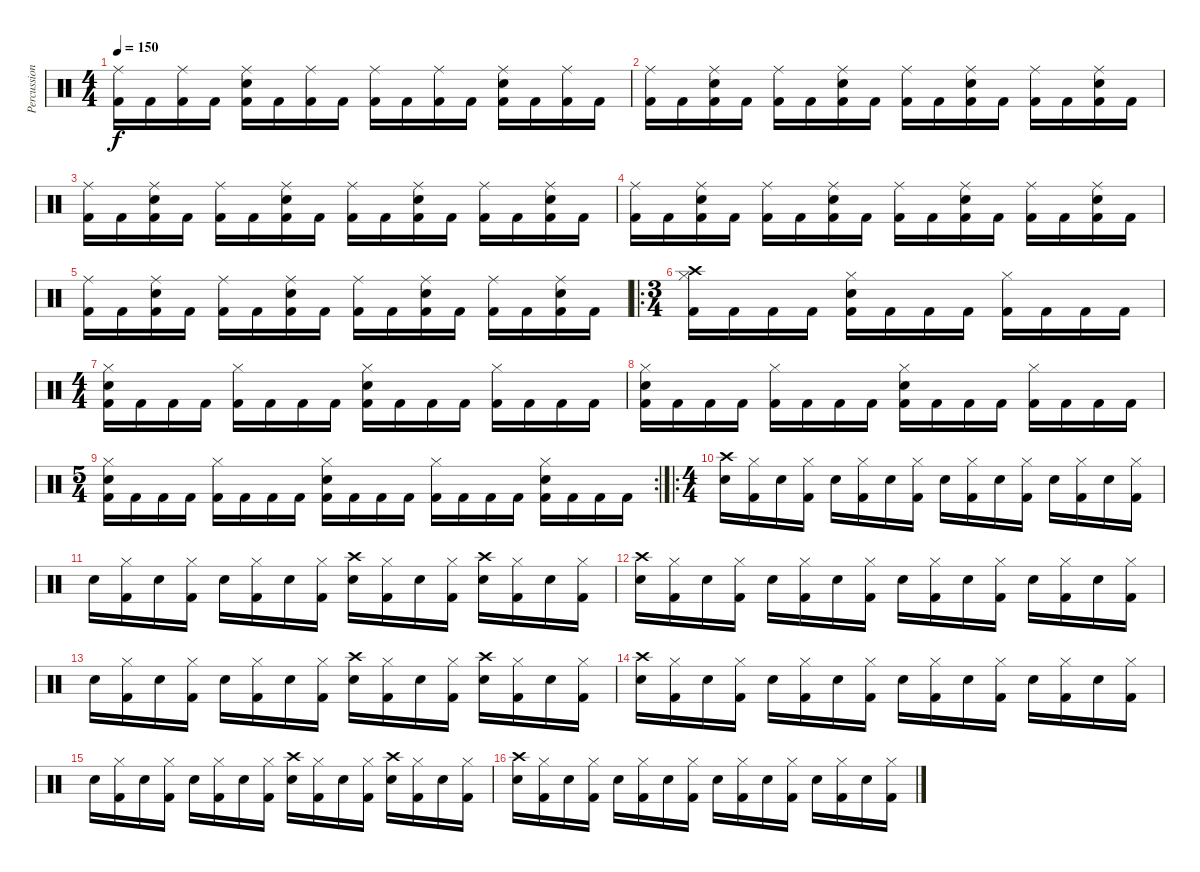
\track ("Percussion" "Percussion") {instrument percussion}
\staff {score}
\articulation defaults
\ts (4 4)
\tempo 150
\clef neutral
\ks c
("Kick (hit) 2" "Ride (middle)").16{dy f} "Kick (hit) 2".16 ("Kick (hit) 2" "Ride (middle)").16 "Kick (hit) 2".16 ("Kick (hit) 2" "Ride (middle)" "Snare (hit) 2").16 "Kick (hit) 2".16 ("Kick (hit) 2" "Ride (middle)").16 "Kick (hit) 2".16 ("Kick (hit) 2" "Ride (middle)").16 "Kick (hit) 2".16 ("Kick (hit) 2" "Ride (middle)").16 "Kick (hit) 2".16 ("Kick (hit) 2" "Ride (middle)" "Snare (hit) 2").16 "Kick (hit) 2".16 ("Kick (hit) 2" "Ride (middle)").16 "Kick (hit) 2".16 |
("Kick (hit) 2" "Ride (middle)").16 "Kick (hit) 2".16 ("Kick (hit) 2" "Ride (middle)" "Snare (hit) 2").16 "Kick (hit) 2".16 ("Kick (hit) 2" "Ride (middle)").16 "Kick (hit) 2".16 ("Kick (hit) 2" "Ride (middle)" "Snare (hit) 2").16 "Kick (hit) 2".16 ("Kick (hit) 2" "Ride (middle)").16 "Kick (hit) 2".16 ("Kick (hit) 2" "Ride (middle)" "Snare (hit) 2").16 "Kick (hit) 2".16 ("Kick (hit) 2" "Ride (middle)").16 "Kick (hit) 2".16 ("Kick (hit) 2" "Ride (middle)" "Snare (hit) 2").16 "Kick (hit) 2".16 |
("Kick (hit) 2" "Ride (middle)").16 "Kick (hit) 2".16 ("Kick (hit) 2" "Ride (middle)" "Snare (hit) 2").16 "Kick (hit) 2".16 ("Kick (hit) 2" "Ride (middle)").16 "Kick (hit) 2".16 ("Kick (hit) 2" "Ride (middle)" "Snare (hit) 2").16 "Kick (hit) 2".16 ("Kick (hit) 2" "Ride (middle)").16 "Kick (hit) 2".16 ("Kick (hit) 2" "Ride (middle)" "Snare (hit) 2").16 "Kick (hit) 2".16 ("Kick (hit) 2" "Ride (middle)").16 "Kick (hit) 2".16 ("Kick (hit) 2" "Ride (middle)" "Snare (hit) 2").16 "Kick (hit) 2".16 |
("Kick (hit) 2" "Ride (middle)").16 "Kick (hit) 2".16 ("Kick (hit) 2" "Ride (middle)" "Snare (hit) 2").16 "Kick (hit) 2".16 ("Kick (hit) 2" "Ride (middle)").16 "Kick (hit) 2".16 ("Kick (hit) 2" "Ride (middle)" "Snare (hit) 2").16 "Kick (hit) 2".16 ("Kick (hit) 2" "Ride (middle)").16 "Kick (hit) 2".16 ("Kick (hit) 2" "Ride (middle)" "Snare (hit) 2").16 "Kick (hit) 2".16 ("Kick (hit) 2" "Ride (middle)").16 "Kick (hit) 2".16 ("Kick (hit) 2" "Ride (middle)" "Snare (hit) 2").16 "Kick (hit) 2".16 |
("Kick (hit) 2" "Ride (middle)").16 "Kick (hit) 2".16 ("Kick (hit) 2" "Ride (middle)" "Snare (hit) 2").16 "Kick (hit) 2".16 ("Kick (hit) 2" "Ride (middle)").16 "Kick (hit) 2".16 ("Kick (hit) 2" "Ride (middle)" "Snare (hit) 2").16 "Kick (hit) 2".16 ("Kick (hit) 2" "Ride (middle)").16 "Kick (hit) 2".16 ("Kick (hit) 2" "Ride (middle)" "Snare (hit) 2").16 "Kick (hit) 2".16 ("Kick (hit) 2" "Ride (middle)").16 "Kick (hit) 2".16 ("Kick (hit) 2" "Ride (middle)" "Snare (hit) 2").16 "Kick (hit) 2".16 |
\ro
\ts (3 4)
("Kick (hit) 2" "Hi-Hat (closed)" "Crash high (hit)").16 "Kick (hit) 2".16 "Kick (hit) 2".16 "Kick (hit) 2".16 ("Kick (hit) 2" "Hi-Hat (closed)" "Snare (hit) 2").16 "Kick (hit) 2".16 "Kick (hit) 2".16 "Kick (hit) 2".16 ("Kick (hit) 2" "Hi-Hat (closed)").16 "Kick (hit) 2".16 "Kick (hit) 2".16 "Kick (hit) 2".16 |
\ts (4 4)
("Kick (hit) 2" "Hi-Hat (closed)" "Snare (hit) 2").16 "Kick (hit) 2".16 "Kick (hit) 2".16 "Kick (hit) 2".16 ("Kick (hit) 2" "Hi-Hat (closed)").16 "Kick (hit) 2".16 "Kick (hit) 2".16 "Kick (hit) 2".16 ("Kick (hit) 2" "Hi-Hat (closed)" "Snare (hit) 2").16 "Kick (hit) 2".16 "Kick (hit) 2".16 "Kick (hit) 2".16 ("Kick (hit) 2" "Hi-Hat (closed)").16 "Kick (hit) 2".16 "Kick (hit) 2".16 "Kick (hit) 2".16 |
("Kick (hit) 2" "Hi-Hat (closed)" "Snare (hit) 2").16 "Kick (hit) 2".16 "Kick (hit) 2".16 "Kick (hit) 2".16 ("Kick (hit) 2" "Hi-Hat (closed)").16 "Kick (hit) 2".16 "Kick (hit) 2".16 "Kick (hit) 2".16 ("Kick (hit) 2" "Hi-Hat (closed)" "Snare (hit) 2").16 "Kick (hit) 2".16 "Kick (hit) 2".16 "Kick (hit) 2".16 ("Kick (hit) 2" "Hi-Hat (closed)").16 "Kick (hit) 2".16 "Kick (hit) 2".16 "Kick (hit) 2".16 |
\rc 2
\ts (5 4)
("Kick (hit) 2" "Hi-Hat (closed)" "Snare (hit) 2").16 "Kick (hit) 2".16 "Kick (hit) 2".16 "Kick (hit) 2".16 ("Kick (hit) 2" "Hi-Hat (closed)").16 "Kick (hit) 2".16 "Kick (hit) 2".16 "Kick (hit) 2".16 ("Kick (hit) 2" "Hi-Hat (closed)" "Snare (hit) 2").16 "Kick (hit) 2".16 "Kick (hit) 2".16 "Kick (hit) 2".16 ("Kick (hit) 2" "Hi-Hat (closed)").16 "Kick (hit) 2".16 "Kick (hit) 2".16 "Kick (hit) 2".16 ("Kick (hit) 2" "Hi-Hat (closed)" "Snare (hit) 2").16 "Kick (hit) 2".16 "Kick (hit) 2".16 "Kick (hit) 2".16 |
\ro
\ts (4 4)
("Snare (hit) 2" "Crash high (hit)").16 ("Kick (hit) 2" "Hi-Hat (closed)").16 "Snare (hit) 2".16 ("Kick (hit) 2" "Hi-Hat (closed)").16 "Snare (hit) 2".16 ("Kick (hit) 2" "Hi-Hat (closed)").16 "Snare (hit) 2".16 ("Kick (hit) 2" "Hi-Hat (closed)").16 "Snare (hit) 2".16 ("Kick (hit) 2" "Hi-Hat (closed)").16 "Snare (hit) 2".16 ("Kick (hit) 2" "Hi-Hat (closed)").16 "Snare (hit) 2".16 ("Kick (hit) 2" "Hi-Hat (closed)").16 "Snare (hit) 2".16 ("Kick (hit) 2" "Hi-Hat (closed)").16 |
"Snare (hit) 2".16 ("Kick (hit) 2" "Hi-Hat (closed)").16 "Snare (hit) 2".16 ("Kick (hit) 2" "Hi-Hat (closed)").16 "Snare (hit) 2".16 ("Kick (hit) 2" "Hi-Hat (closed)").16 "Snare (hit) 2".16 ("Kick (hit) 2" "Hi-Hat (closed)").16 ("Snare (hit) 2" "Crash high (hit)").16 ("Kick (hit) 2" "Hi-Hat (closed)").16 "Snare (hit) 2".16 ("Kick (hit) 2" "Hi-Hat (closed)").16 ("Snare (hit) 2" "Crash high (hit)").16 ("Kick (hit) 2" "Hi-Hat (closed)").16 "Snare (hit) 2".16 ("Kick (hit) 2" "Hi-Hat (closed)").16 |
("Snare (hit) 2" "Crash high (hit)").16 ("Kick (hit) 2" "Hi-Hat (closed)").16 "Snare (hit) 2".16 ("Kick (hit) 2" "Hi-Hat (closed)").16 "Snare (hit) 2".16 ("Kick (hit) 2" "Hi-Hat (closed)").16 "Snare (hit) 2".16 ("Kick (hit) 2" "Hi-Hat (closed)").16 "Snare (hit) 2".16 ("Kick (hit) 2" "Hi-Hat (closed)").16 "Snare (hit) 2".16 ("Kick (hit) 2" "Hi-Hat (closed)").16 "Snare (hit) 2".16 ("Kick (hit) 2" "Hi-Hat (closed)").16 "Snare (hit) 2".16 ("Kick (hit) 2" "Hi-Hat (closed)").16 |
"Snare (hit) 2".16 ("Kick (hit) 2" "Hi-Hat (closed)").16 "Snare (hit) 2".16 ("Kick (hit) 2" "Hi-Hat (closed)").16 "Snare (hit) 2".16 ("Kick (hit) 2" "Hi-Hat (closed)").16 "Snare (hit) 2".16 ("Kick (hit) 2" "Hi-Hat (closed)").16 ("Snare (hit) 2" "Crash high (hit)").16 ("Kick (hit) 2" "Hi-Hat (closed)").16 "Snare (hit) 2".16 ("Kick (hit) 2" "Hi-Hat (closed)").16 ("Snare (hit) 2" "Crash high (hit)").16 ("Kick (hit) 2" "Hi-Hat (closed)").16 "Snare (hit) 2".16 ("Kick (hit) 2" "Hi-Hat (closed)").16 |
("Snare (hit) 2" "Crash high (hit)").16 ("Kick (hit) 2" "Hi-Hat (closed)").16 "Snare (hit) 2".16 ("Kick (hit) 2" "Hi-Hat (closed)").16 "Snare (hit) 2".16 ("Kick (hit) 2" "Hi-Hat (closed)").16 "Snare (hit) 2".16 ("Kick (hit) 2" "Hi-Hat (closed)").16 "Snare (hit) 2".16 ("Kick (hit) 2" "Hi-Hat (closed)").16 "Snare (hit) 2".16 ("Kick (hit) 2" "Hi-Hat (closed)").16 "Snare (hit) 2".16 ("Kick (hit) 2" "Hi-Hat (closed)").16 "Snare (hit) 2".16 ("Kick (hit) 2" "Hi-Hat (closed)").16 |
"Snare (hit) 2".16 ("Kick (hit) 2" "Hi-Hat (closed)").16 "Snare (hit) 2".16 ("Kick (hit) 2" "Hi-Hat (closed)").16 "Snare (hit) 2".16 ("Kick (hit) 2" "Hi-Hat (closed)").16 "Snare (hit) 2".16 ("Kick (hit) 2" "Hi-Hat (closed)").16 ("Snare (hit) 2" "Crash high (hit)").16 ("Kick (hit) 2" "Hi-Hat (closed)").16 "Snare (hit) 2".16 ("Kick (hit) 2" "Hi-Hat (closed)").16 ("Snare (hit) 2" "Crash high (hit)").16 ("Kick (hit) 2" "Hi-Hat (closed)").16 "Snare (hit) 2".16 ("Kick (hit) 2" "Hi-Hat (closed)").16 |
("Snare (hit) 2" "Crash high (hit)").16 ("Kick (hit) 2" "Hi-Hat (closed)").16 "Snare (hit) 2".16 ("Kick (hit) 2" "Hi-Hat (closed)").16 "Snare (hit) 2".16 ("Kick (hit) 2" "Hi-Hat (closed)").16 "Snare (hit) 2".16 ("Kick (hit) 2" "Hi-Hat (closed)").16 "Snare (hit) 2".16 ("Kick (hit) 2" "Hi-Hat (closed)").16 "Snare (hit) 2".16 ("Kick (hit) 2" "Hi-Hat (closed)").16 "Snare (hit) 2".16 ("Kick (hit) 2" "Hi-Hat (closed)").16 "Snare (hit) 2".16 ("Kick (hit) 2" "Hi-Hat (closed)").16
